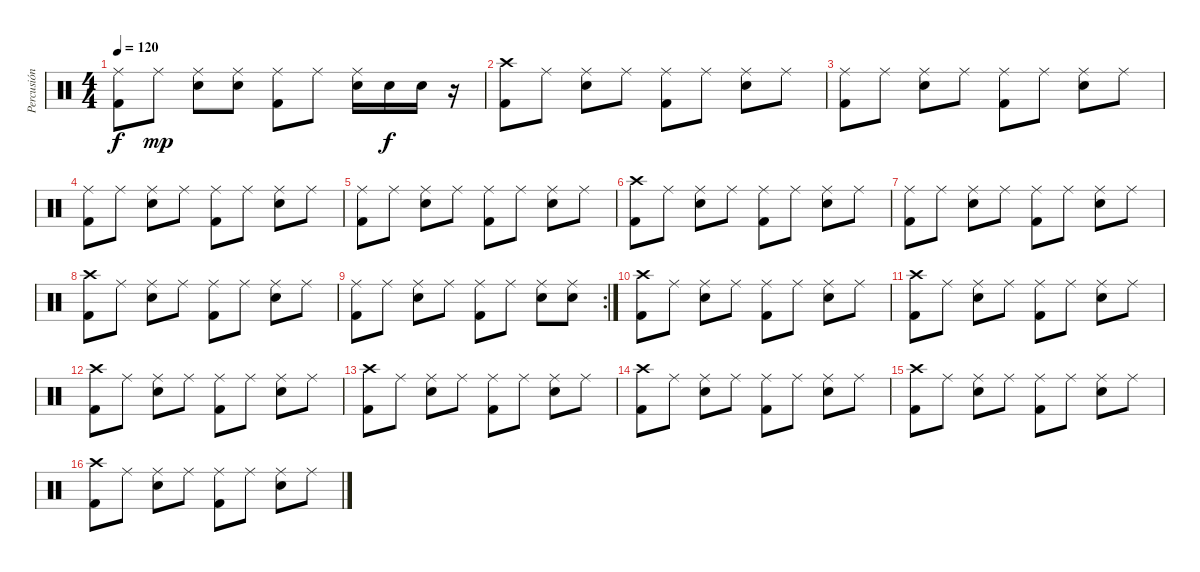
\track ("Percusión" "Percusión") {instrument percussion}
\staff {score}
\articulation defaults
\ts (4 4)
\tempo 120
\clef neutral
\ks c
("Kick (hit) 2" "Ride (middle)").8{dy f} "Ride (middle)".8{dy mp} ("Electric Snare (hit)" "Ride (middle)").8 ("Electric Snare (hit)" "Ride (middle)").8 ("Kick (hit) 2" "Ride (middle)").8 "Ride (middle)".8 ("Electric Snare (hit)" "Ride (middle)").16 "Electric Snare (hit)".16{dy f} "Electric Snare (hit)".16 r.16 |
("Crash high (hit)" "Kick (hit) 2").8 "Ride (middle)".8 ("Ride (middle)" "Electric Snare (hit)").8 "Ride (middle)".8 ("Kick (hit) 2" "Ride (middle)").8 "Ride (middle)".8 ("Electric Snare (hit)" "Ride (middle)").8 "Ride (middle)".8 |
("Ride (middle)" "Kick (hit) 2").8 "Ride (middle)".8 ("Ride (middle)" "Electric Snare (hit)").8 "Ride (middle)".8 ("Kick (hit) 2" "Ride (middle)").8 "Ride (middle)".8 ("Ride (middle)" "Electric Snare (hit)").8 "Ride (middle)".8 |
("Ride (middle)" "Kick (hit) 2").8 "Ride (middle)".8 ("Ride (middle)" "Electric Snare (hit)").8 "Ride (middle)".8 ("Kick (hit) 2" "Ride (middle)").8 "Ride (middle)".8 ("Ride (middle)" "Electric Snare (hit)").8 "Ride (middle)".8 |
("Ride (middle)" "Kick (hit) 2").8 "Ride (middle)".8 ("Ride (middle)" "Electric Snare (hit)").8 "Ride (middle)".8 ("Kick (hit) 2" "Ride (middle)").8 "Ride (middle)".8 ("Ride (middle)" "Electric Snare (hit)").8 "Ride (middle)".8 |
("Crash high (hit)" "Kick (hit) 2").8 "Ride (middle)".8 ("Ride (middle)" "Electric Snare (hit)").8 "Ride (middle)".8 ("Kick (hit) 2" "Ride (middle)").8 "Ride (middle)".8 ("Electric Snare (hit)" "Ride (middle)").8 "Ride (middle)".8 |
("Ride (middle)" "Kick (hit) 2").8 "Ride (middle)".8 ("Ride (middle)" "Electric Snare (hit)").8 "Ride (middle)".8 ("Kick (hit) 2" "Ride (middle)").8 "Ride (middle)".8 ("Ride (middle)" "Electric Snare (hit)").8 "Ride (middle)".8 |
("Crash high (hit)" "Kick (hit) 2").8 "Ride (middle)".8 ("Ride (middle)" "Electric Snare (hit)").8 "Ride (middle)".8 ("Kick (hit) 2" "Ride (middle)").8 "Ride (middle)".8 ("Electric Snare (hit)" "Ride (middle)").8 "Ride (middle)".8 |
\rc 2
("Ride (middle)" "Kick (hit) 2").8 "Ride (middle)".8 ("Ride (middle)" "Electric Snare (hit)").8 "Ride (middle)".8 ("Kick (hit) 2" "Ride (middle)").8 "Ride (middle)".8 ("Ride (middle)" "Electric Snare (hit)").8 ("Ride (middle)" "Electric Snare (hit)").8 |
("Crash high (hit)" "Kick (hit) 2").8 "Ride (middle)".8 ("Ride (middle)" "Electric Snare (hit)").8 "Ride (middle)".8 ("Kick (hit) 2" "Ride (middle)").8 "Ride (middle)".8 ("Electric Snare (hit)" "Ride (middle)").8 "Ride (middle)".8 |
("Crash high (hit)" "Kick (hit) 2").8 "Ride (middle)".8 ("Ride (middle)" "Electric Snare (hit)").8 "Ride (middle)".8 ("Kick (hit) 2" "Ride (middle)").8 "Ride (middle)".8 ("Electric Snare (hit)" "Ride (middle)").8 "Ride (middle)".8 |
("Crash high (hit)" "Kick (hit) 2").8 "Ride (middle)".8 ("Ride (middle)" "Electric Snare (hit)").8 "Ride (middle)".8 ("Kick (hit) 2" "Ride (middle)").8 "Ride (middle)".8 ("Electric Snare (hit)" "Ride (middle)").8 "Ride (middle)".8 |
("Crash high (hit)" "Kick (hit) 2").8 "Ride (middle)".8 ("Ride (middle)" "Electric Snare (hit)").8 "Ride (middle)".8 ("Kick (hit) 2" "Ride (middle)").8 "Ride (middle)".8 ("Electric Snare (hit)" "Ride (middle)").8 "Ride (middle)".8 |
("Crash high (hit)" "Kick (hit) 2").8 "Ride (middle)".8 ("Ride (middle)" "Electric Snare (hit)").8 "Ride (middle)".8 ("Kick (hit) 2" "Ride (middle)").8 "Ride (middle)".8 ("Electric Snare (hit)" "Ride (middle)").8 "Ride (middle)".8 |
("Crash high (hit)" "Kick (hit) 2").8 "Ride (middle)".8 ("Ride (middle)" "Electric Snare (hit)").8 "Ride (middle)".8 ("Kick (hit) 2" "Ride (middle)").8 "Ride (middle)".8 ("Electric Snare (hit)" "Ride (middle)").8 "Ride (middle)".8 |
("Crash high (hit)" "Kick (hit) 2").8 "Ride (middle)".8 ("Ride (middle)" "Electric Snare (hit)").8 "Ride (middle)".8 ("Kick (hit) 2" "Ride (middle)").8 "Ride (middle)".8 ("Electric Snare (hit)" "Ride (middle)").8 "Ride (middle)".8
